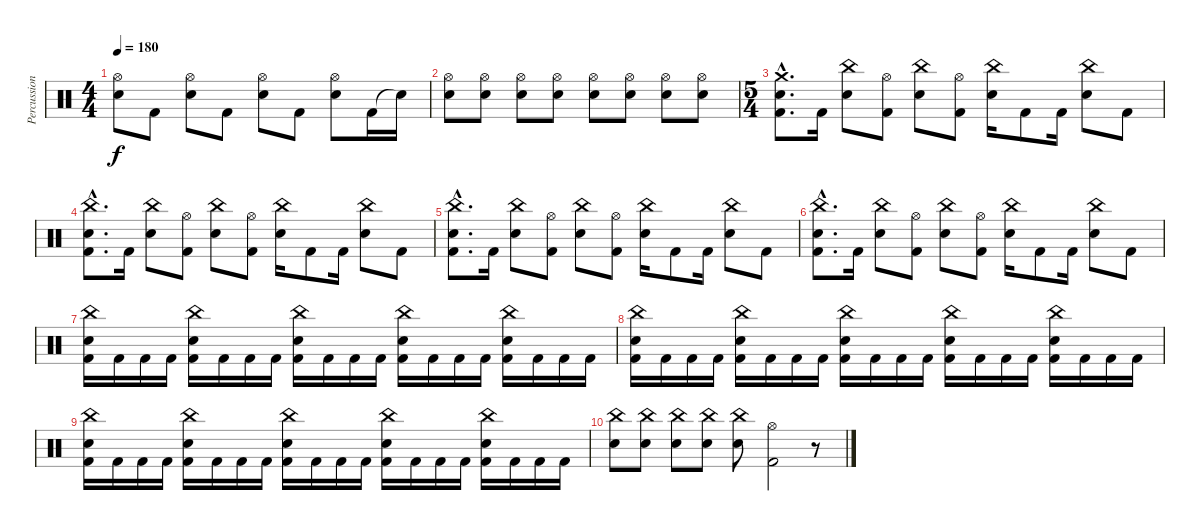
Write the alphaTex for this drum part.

\track ("Percussion" "Percussion") {instrument percussion}
\staff {score}
\articulation defaults
\ts (4 4)
\tempo 180
\clef neutral
\ks c
("Hi-Hat (open)" "Electric Snare (hit)").8{dy f} "Kick (hit) 2".8 ("Hi-Hat (open)" "Electric Snare (hit)").8 "Kick (hit) 2".8 ("Hi-Hat (open)" "Electric Snare (hit)").8 "Kick (hit) 2".8 ("Hi-Hat (open)" "Electric Snare (hit)").8 "Kick (hit) 2".16 "Snare (hit)"{t}.16{volume 7} |
("Hi-Hat (open)" "Electric Snare (hit)").8{volume 13} ("Hi-Hat (open)" "Electric Snare (hit)").8 ("Hi-Hat (open)" "Electric Snare (hit)").8 ("Hi-Hat (open)" "Electric Snare (hit)").8 ("Hi-Hat (open)" "Electric Snare (hit)").8 ("Hi-Hat (open)" "Electric Snare (hit)").8 ("Hi-Hat (open)" "Electric Snare (hit)").8 ("Hi-Hat (open)" "Electric Snare (hit)").8 |
\ts (5 4)
("Crash medium (hit)"{hac} "Electric Snare (hit)"{hac} "Kick (hit) 2"{hac}).8{d} "Kick (hit) 2".16 ("China (hit)" "Electric Snare (hit)").8 ("Hi-Hat (open)" "Kick (hit) 2").8 ("China (hit)" "Electric Snare (hit)").8 ("Hi-Hat (open)" "Kick (hit) 2").8 ("China (hit)" "Electric Snare (hit)").16 "Kick (hit) 2".8 "Kick (hit) 2".16 ("China (hit)" "Electric Snare (hit)").8 "Kick (hit) 2".8 |
("China (hit)"{hac} "Electric Snare (hit)"{hac} "Kick (hit) 2"{hac}).8{d} "Kick (hit) 2".16 ("China (hit)" "Electric Snare (hit)").8 ("Hi-Hat (open)" "Kick (hit) 2").8 ("China (hit)" "Electric Snare (hit)").8 ("Hi-Hat (open)" "Kick (hit) 2").8 ("China (hit)" "Electric Snare (hit)").16 "Kick (hit) 2".8 "Kick (hit) 2".16 ("China (hit)" "Electric Snare (hit)").8 "Kick (hit) 2".8 |
("China (hit)"{hac} "Electric Snare (hit)"{hac} "Kick (hit) 2"{hac}).8{d} "Kick (hit) 2".16 ("China (hit)" "Electric Snare (hit)").8 ("Hi-Hat (open)" "Kick (hit) 2").8 ("China (hit)" "Electric Snare (hit)").8 ("Hi-Hat (open)" "Kick (hit) 2").8 ("China (hit)" "Electric Snare (hit)").16 "Kick (hit) 2".8 "Kick (hit) 2".16 ("China (hit)" "Electric Snare (hit)").8 "Kick (hit) 2".8 |
("China (hit)"{hac} "Electric Snare (hit)"{hac} "Kick (hit) 2"{hac}).8{d} "Kick (hit) 2".16 ("China (hit)" "Electric Snare (hit)").8 ("Hi-Hat (open)" "Kick (hit) 2").8 ("China (hit)" "Electric Snare (hit)").8 ("Hi-Hat (open)" "Kick (hit) 2").8 ("China (hit)" "Electric Snare (hit)").16 "Kick (hit) 2".8 "Kick (hit) 2".16 ("China (hit)" "Electric Snare (hit)").8 "Kick (hit) 2".8 |
("China (hit)" "Electric Snare (hit)" "Kick (hit) 2").16 "Kick (hit) 2".16 "Kick (hit) 2".16 "Kick (hit) 2".16 ("China (hit)" "Electric Snare (hit)" "Kick (hit) 2").16 "Kick (hit) 2".16 "Kick (hit) 2".16 "Kick (hit) 2".16 ("China (hit)" "Electric Snare (hit)" "Kick (hit) 2").16 "Kick (hit) 2".16 "Kick (hit) 2".16 "Kick (hit) 2".16 ("China (hit)" "Electric Snare (hit)" "Kick (hit) 2").16 "Kick (hit) 2".16 "Kick (hit) 2".16 "Kick (hit) 2".16 ("China (hit)" "Electric Snare (hit)" "Kick (hit) 2").16 "Kick (hit) 2".16 "Kick (hit) 2".16 "Kick (hit) 2".16 |
("China (hit)" "Electric Snare (hit)" "Kick (hit) 2").16 "Kick (hit) 2".16 "Kick (hit) 2".16 "Kick (hit) 2".16 ("China (hit)" "Electric Snare (hit)" "Kick (hit) 2").16 "Kick (hit) 2".16 "Kick (hit) 2".16 "Kick (hit) 2".16 ("China (hit)" "Electric Snare (hit)" "Kick (hit) 2").16 "Kick (hit) 2".16 "Kick (hit) 2".16 "Kick (hit) 2".16 ("China (hit)" "Electric Snare (hit)" "Kick (hit) 2").16 "Kick (hit) 2".16 "Kick (hit) 2".16 "Kick (hit) 2".16 ("China (hit)" "Electric Snare (hit)" "Kick (hit) 2").16 "Kick (hit) 2".16 "Kick (hit) 2".16 "Kick (hit) 2".16 |
("China (hit)" "Electric Snare (hit)" "Kick (hit) 2").16 "Kick (hit) 2".16 "Kick (hit) 2".16 "Kick (hit) 2".16 ("China (hit)" "Electric Snare (hit)" "Kick (hit) 2").16 "Kick (hit) 2".16 "Kick (hit) 2".16 "Kick (hit) 2".16 ("China (hit)" "Electric Snare (hit)" "Kick (hit) 2").16 "Kick (hit) 2".16 "Kick (hit) 2".16 "Kick (hit) 2".16 ("China (hit)" "Electric Snare (hit)" "Kick (hit) 2").16 "Kick (hit) 2".16 "Kick (hit) 2".16 "Kick (hit) 2".16 ("China (hit)" "Electric Snare (hit)" "Kick (hit) 2").16 "Kick (hit) 2".16 "Kick (hit) 2".16 "Kick (hit) 2".16 |
("China (hit)" "Electric Snare (hit)").8 ("China (hit)" "Electric Snare (hit)").8 ("China (hit)" "Electric Snare (hit)").8 ("China (hit)" "Electric Snare (hit)").8 ("China (hit)" "Electric Snare (hit)").8 ("Hi-Hat (open)" "Kick (hit) 2").2 r.8
